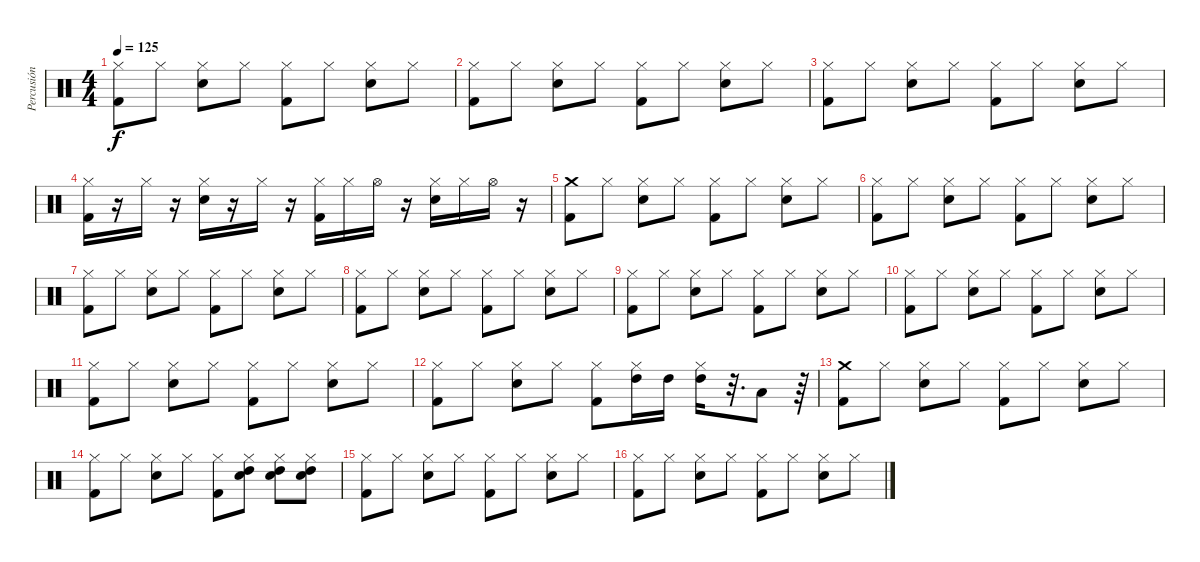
\track ("Percusión" "Percusión") {instrument percussion}
\staff {score}
\articulation defaults
\ts (4 4)
\tempo 125
\clef neutral
\ks c
("Hi-Hat (closed)" "Kick (hit) 2").8{dy f} "Hi-Hat (closed)".8 ("Hi-Hat (closed)" "Snare (hit) 2").8 "Hi-Hat (closed)".8 ("Hi-Hat (closed)" "Kick (hit) 2").8 "Hi-Hat (closed)".8 ("Hi-Hat (closed)" "Snare (hit) 2").8 "Hi-Hat (closed)".8 |
("Hi-Hat (closed)" "Kick (hit) 2").8 "Hi-Hat (closed)".8 ("Hi-Hat (closed)" "Snare (hit) 2").8 "Hi-Hat (closed)".8 ("Hi-Hat (closed)" "Kick (hit) 2").8 "Hi-Hat (closed)".8 ("Hi-Hat (closed)" "Snare (hit) 2").8 "Hi-Hat (closed)".8 |
("Hi-Hat (closed)" "Kick (hit) 2").8 "Hi-Hat (closed)".8 ("Hi-Hat (closed)" "Snare (hit) 2").8 "Hi-Hat (closed)".8 ("Hi-Hat (closed)" "Kick (hit) 2").8 "Hi-Hat (closed)".8 ("Hi-Hat (closed)" "Snare (hit) 2").8 "Hi-Hat (closed)".8 |
("Hi-Hat (closed)" "Kick (hit) 2").16 r.16 "Hi-Hat (closed)".16 r.16 ("Hi-Hat (closed)" "Snare (hit) 2").16 r.16 "Hi-Hat (closed)".16 r.16 ("Hi-Hat (closed)" "Kick (hit) 2").16 "Hi-Hat (closed)".16 "Hi-Hat (open)".16 r.16 ("Hi-Hat (closed)" "Snare (hit) 2").16 "Hi-Hat (closed)".16 "Hi-Hat (open)".16 r.16 |
("Crash medium (hit)" "Kick (hit) 2").8 "Hi-Hat (closed)".8 ("Hi-Hat (closed)" "Snare (hit) 2").8 "Hi-Hat (closed)".8 ("Hi-Hat (closed)" "Kick (hit) 2").8 "Hi-Hat (closed)".8 ("Hi-Hat (closed)" "Snare (hit) 2").8 "Hi-Hat (closed)".8 |
("Hi-Hat (closed)" "Kick (hit) 2").8 "Hi-Hat (closed)".8 ("Hi-Hat (closed)" "Snare (hit) 2").8 "Hi-Hat (closed)".8 ("Hi-Hat (closed)" "Kick (hit) 2").8 "Hi-Hat (closed)".8 ("Hi-Hat (closed)" "Snare (hit) 2").8 "Hi-Hat (closed)".8 |
("Hi-Hat (closed)" "Kick (hit) 2").8 "Hi-Hat (closed)".8 ("Hi-Hat (closed)" "Snare (hit) 2").8 "Hi-Hat (closed)".8 ("Hi-Hat (closed)" "Kick (hit) 2").8 "Hi-Hat (closed)".8 ("Hi-Hat (closed)" "Snare (hit) 2").8 "Hi-Hat (closed)".8 |
("Hi-Hat (closed)" "Kick (hit) 2").8 "Hi-Hat (closed)".8 ("Hi-Hat (closed)" "Snare (hit) 2").8 "Hi-Hat (closed)".8 ("Hi-Hat (closed)" "Kick (hit) 2").8 "Hi-Hat (closed)".8 ("Hi-Hat (closed)" "Snare (hit) 2").8 "Hi-Hat (closed)".8 |
("Hi-Hat (closed)" "Kick (hit) 2").8 "Hi-Hat (closed)".8 ("Hi-Hat (closed)" "Snare (hit) 2").8 "Hi-Hat (closed)".8 ("Hi-Hat (closed)" "Kick (hit) 2").8 "Hi-Hat (closed)".8 ("Hi-Hat (closed)" "Snare (hit) 2").8 "Hi-Hat (closed)".8 |
("Hi-Hat (closed)" "Kick (hit) 2").8 "Hi-Hat (closed)".8 ("Hi-Hat (closed)" "Snare (hit) 2").8 "Hi-Hat (closed)".8 ("Hi-Hat (closed)" "Kick (hit) 2").8 "Hi-Hat (closed)".8 ("Hi-Hat (closed)" "Snare (hit) 2").8 "Hi-Hat (closed)".8 |
("Hi-Hat (closed)" "Kick (hit) 2").8 "Hi-Hat (closed)".8 ("Hi-Hat (closed)" "Snare (hit) 2").8 "Hi-Hat (closed)".8 ("Hi-Hat (closed)" "Kick (hit) 2").8 "Hi-Hat (closed)".8 ("Hi-Hat (closed)" "Snare (hit) 2").8 "Hi-Hat (closed)".8 |
("Hi-Hat (closed)" "Kick (hit) 2").8 "Hi-Hat (closed)".8 ("Hi-Hat (closed)" "Snare (hit) 2").8 "Hi-Hat (closed)".8 ("Hi-Hat (closed)" "Kick (hit) 2").8 ("Hi-Hat (closed)" "High Tom (hit)").16 "High Tom (hit)".16 ("Hi-Hat (closed)" "High Tom (hit)").16 r.32{d} "Low Tom (hit)".8 r.64 |
("Crash medium (hit)" "Kick (hit) 2").8 "Hi-Hat (closed)".8 ("Hi-Hat (closed)" "Snare (hit) 2").8 "Hi-Hat (closed)".8 ("Hi-Hat (closed)" "Kick (hit) 2").8 "Hi-Hat (closed)".8 ("Hi-Hat (closed)" "Snare (hit) 2").8 "Hi-Hat (closed)".8 |
("Hi-Hat (closed)" "Kick (hit) 2").8 "Hi-Hat (closed)".8 ("Hi-Hat (closed)" "Snare (hit) 2").8 "Hi-Hat (closed)".8 ("Hi-Hat (closed)" "Kick (hit) 2").8 ("Hi-Hat (closed)" "Snare (hit) 2" "High Tom (hit)").8 ("Hi-Hat (closed)" "Snare (hit) 2" "High Tom (hit)").8 ("Hi-Hat (closed)" "Snare (hit) 2" "High Tom (hit)").8 |
("Hi-Hat (closed)" "Kick (hit) 2").8 "Hi-Hat (closed)".8 ("Hi-Hat (closed)" "Snare (hit) 2").8 "Hi-Hat (closed)".8 ("Hi-Hat (closed)" "Kick (hit) 2").8 "Hi-Hat (closed)".8 ("Hi-Hat (closed)" "Snare (hit) 2").8 "Hi-Hat (closed)".8 |
("Hi-Hat (closed)" "Kick (hit) 2").8 "Hi-Hat (closed)".8 ("Hi-Hat (closed)" "Snare (hit) 2").8 "Hi-Hat (closed)".8 ("Hi-Hat (closed)" "Kick (hit) 2").8 "Hi-Hat (closed)".8 ("Hi-Hat (closed)" "Snare (hit) 2").8 "Hi-Hat (closed)".8
